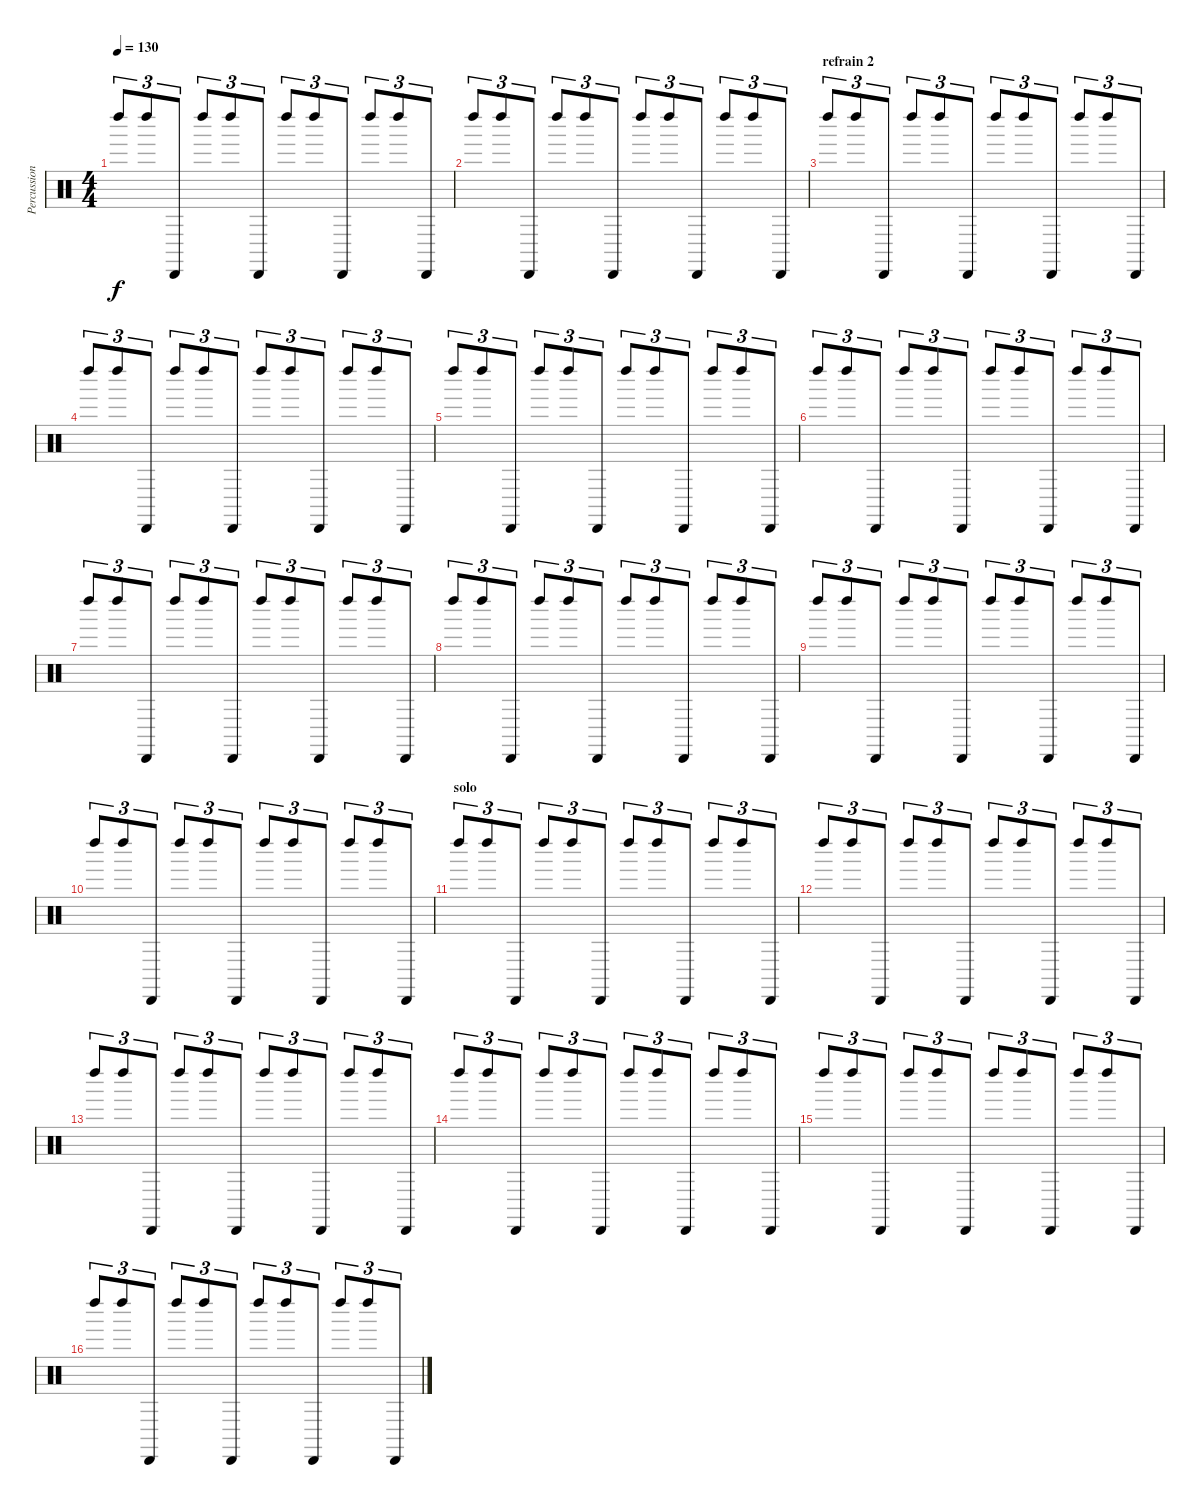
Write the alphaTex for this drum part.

\track ("Percussions Farrell Morris" "Percussion") {instrument percussion}
\staff {score}
\articulation defaults
\ts (4 4)
\tempo 130
\clef neutral
\ks c "Left Maraca (hit)".8{tu (3 2) dy f} "Left Maraca (hit)".8{tu (3 2)} "Cabasa (hit)".8{tu (3 2)} "Left Maraca (hit)".8{tu (3 2)} "Left Maraca (hit)".8{tu (3 2)} "Cabasa (hit)".8{tu (3 2)} "Left Maraca (hit)".8{tu (3 2)} "Left Maraca (hit)".8{tu (3 2)} "Cabasa (hit)".8{tu (3 2)} "Left Maraca (hit)".8{tu (3 2)} "Left Maraca (hit)".8{tu (3 2)} "Cabasa (hit)".8{tu (3 2)}
|
"Left Maraca (hit)".8{tu (3 2)} "Left Maraca (hit)".8{tu (3 2)} "Cabasa (hit)".8{tu (3 2)} "Left Maraca (hit)".8{tu (3 2)} "Left Maraca (hit)".8{tu (3 2)} "Cabasa (hit)".8{tu (3 2)} "Left Maraca (hit)".8{tu (3 2)} "Left Maraca (hit)".8{tu (3 2)} "Cabasa (hit)".8{tu (3 2)} "Left Maraca (hit)".8{tu (3 2)} "Left Maraca (hit)".8{tu (3 2)} "Cabasa (hit)".8{tu (3 2)} |
\section ("" "refrain 2")
"Left Maraca (hit)".8{tu (3 2)} "Left Maraca (hit)".8{tu (3 2)} "Cabasa (hit)".8{tu (3 2)} "Left Maraca (hit)".8{tu (3 2)} "Left Maraca (hit)".8{tu (3 2)} "Cabasa (hit)".8{tu (3 2)} "Left Maraca (hit)".8{tu (3 2)} "Left Maraca (hit)".8{tu (3 2)} "Cabasa (hit)".8{tu (3 2)} "Left Maraca (hit)".8{tu (3 2)} "Left Maraca (hit)".8{tu (3 2)} "Cabasa (hit)".8{tu (3 2)} |
"Left Maraca (hit)".8{tu (3 2)} "Left Maraca (hit)".8{tu (3 2)} "Cabasa (hit)".8{tu (3 2)} "Left Maraca (hit)".8{tu (3 2)} "Left Maraca (hit)".8{tu (3 2)} "Cabasa (hit)".8{tu (3 2)} "Left Maraca (hit)".8{tu (3 2)} "Left Maraca (hit)".8{tu (3 2)} "Cabasa (hit)".8{tu (3 2)} "Left Maraca (hit)".8{tu (3 2)} "Left Maraca (hit)".8{tu (3 2)} "Cabasa (hit)".8{tu (3 2)} |
"Left Maraca (hit)".8{tu (3 2)} "Left Maraca (hit)".8{tu (3 2)} "Cabasa (hit)".8{tu (3 2)} "Left Maraca (hit)".8{tu (3 2)} "Left Maraca (hit)".8{tu (3 2)} "Cabasa (hit)".8{tu (3 2)} "Left Maraca (hit)".8{tu (3 2)} "Left Maraca (hit)".8{tu (3 2)} "Cabasa (hit)".8{tu (3 2)} "Left Maraca (hit)".8{tu (3 2)} "Left Maraca (hit)".8{tu (3 2)} "Cabasa (hit)".8{tu (3 2)} |
"Left Maraca (hit)".8{tu (3 2)} "Left Maraca (hit)".8{tu (3 2)} "Cabasa (hit)".8{tu (3 2)} "Left Maraca (hit)".8{tu (3 2)} "Left Maraca (hit)".8{tu (3 2)} "Cabasa (hit)".8{tu (3 2)} "Left Maraca (hit)".8{tu (3 2)} "Left Maraca (hit)".8{tu (3 2)} "Cabasa (hit)".8{tu (3 2)} "Left Maraca (hit)".8{tu (3 2)} "Left Maraca (hit)".8{tu (3 2)} "Cabasa (hit)".8{tu (3 2)} |
"Left Maraca (hit)".8{tu (3 2)} "Left Maraca (hit)".8{tu (3 2)} "Cabasa (hit)".8{tu (3 2)} "Left Maraca (hit)".8{tu (3 2)} "Left Maraca (hit)".8{tu (3 2)} "Cabasa (hit)".8{tu (3 2)} "Left Maraca (hit)".8{tu (3 2)} "Left Maraca (hit)".8{tu (3 2)} "Cabasa (hit)".8{tu (3 2)} "Left Maraca (hit)".8{tu (3 2)} "Left Maraca (hit)".8{tu (3 2)} "Cabasa (hit)".8{tu (3 2)} |
"Left Maraca (hit)".8{tu (3 2)} "Left Maraca (hit)".8{tu (3 2)} "Cabasa (hit)".8{tu (3 2)} "Left Maraca (hit)".8{tu (3 2)} "Left Maraca (hit)".8{tu (3 2)} "Cabasa (hit)".8{tu (3 2)} "Left Maraca (hit)".8{tu (3 2)} "Left Maraca (hit)".8{tu (3 2)} "Cabasa (hit)".8{tu (3 2)} "Left Maraca (hit)".8{tu (3 2)} "Left Maraca (hit)".8{tu (3 2)} "Cabasa (hit)".8{tu (3 2)} |
"Left Maraca (hit)".8{tu (3 2)} "Left Maraca (hit)".8{tu (3 2)} "Cabasa (hit)".8{tu (3 2)} "Left Maraca (hit)".8{tu (3 2)} "Left Maraca (hit)".8{tu (3 2)} "Cabasa (hit)".8{tu (3 2)} "Left Maraca (hit)".8{tu (3 2)} "Left Maraca (hit)".8{tu (3 2)} "Cabasa (hit)".8{tu (3 2)} "Left Maraca (hit)".8{tu (3 2)} "Left Maraca (hit)".8{tu (3 2)} "Cabasa (hit)".8{tu (3 2)} |
"Left Maraca (hit)".8{tu (3 2)} "Left Maraca (hit)".8{tu (3 2)} "Cabasa (hit)".8{tu (3 2)} "Left Maraca (hit)".8{tu (3 2)} "Left Maraca (hit)".8{tu (3 2)} "Cabasa (hit)".8{tu (3 2)} "Left Maraca (hit)".8{tu (3 2)} "Left Maraca (hit)".8{tu (3 2)} "Cabasa (hit)".8{tu (3 2)} "Left Maraca (hit)".8{tu (3 2)} "Left Maraca (hit)".8{tu (3 2)} "Cabasa (hit)".8{tu (3 2)} |
\section ("" "solo")
"Left Maraca (hit)".8{tu (3 2)} "Left Maraca (hit)".8{tu (3 2)} "Cabasa (hit)".8{tu (3 2)} "Left Maraca (hit)".8{tu (3 2)} "Left Maraca (hit)".8{tu (3 2)} "Cabasa (hit)".8{tu (3 2)} "Left Maraca (hit)".8{tu (3 2)} "Left Maraca (hit)".8{tu (3 2)} "Cabasa (hit)".8{tu (3 2)} "Left Maraca (hit)".8{tu (3 2)} "Left Maraca (hit)".8{tu (3 2)} "Cabasa (hit)".8{tu (3 2)} |
"Left Maraca (hit)".8{tu (3 2)} "Left Maraca (hit)".8{tu (3 2)} "Cabasa (hit)".8{tu (3 2)} "Left Maraca (hit)".8{tu (3 2)} "Left Maraca (hit)".8{tu (3 2)} "Cabasa (hit)".8{tu (3 2)} "Left Maraca (hit)".8{tu (3 2)} "Left Maraca (hit)".8{tu (3 2)} "Cabasa (hit)".8{tu (3 2)} "Left Maraca (hit)".8{tu (3 2)} "Left Maraca (hit)".8{tu (3 2)} "Cabasa (hit)".8{tu (3 2)} |
"Left Maraca (hit)".8{tu (3 2)} "Left Maraca (hit)".8{tu (3 2)} "Cabasa (hit)".8{tu (3 2)} "Left Maraca (hit)".8{tu (3 2)} "Left Maraca (hit)".8{tu (3 2)} "Cabasa (hit)".8{tu (3 2)} "Left Maraca (hit)".8{tu (3 2)} "Left Maraca (hit)".8{tu (3 2)} "Cabasa (hit)".8{tu (3 2)} "Left Maraca (hit)".8{tu (3 2)} "Left Maraca (hit)".8{tu (3 2)} "Cabasa (hit)".8{tu (3 2)} |
"Left Maraca (hit)".8{tu (3 2)} "Left Maraca (hit)".8{tu (3 2)} "Cabasa (hit)".8{tu (3 2)} "Left Maraca (hit)".8{tu (3 2)} "Left Maraca (hit)".8{tu (3 2)} "Cabasa (hit)".8{tu (3 2)} "Left Maraca (hit)".8{tu (3 2)} "Left Maraca (hit)".8{tu (3 2)} "Cabasa (hit)".8{tu (3 2)} "Left Maraca (hit)".8{tu (3 2)} "Left Maraca (hit)".8{tu (3 2)} "Cabasa (hit)".8{tu (3 2)} |
"Left Maraca (hit)".8{tu (3 2)} "Left Maraca (hit)".8{tu (3 2)} "Cabasa (hit)".8{tu (3 2)} "Left Maraca (hit)".8{tu (3 2)} "Left Maraca (hit)".8{tu (3 2)} "Cabasa (hit)".8{tu (3 2)} "Left Maraca (hit)".8{tu (3 2)} "Left Maraca (hit)".8{tu (3 2)} "Cabasa (hit)".8{tu (3 2)} "Left Maraca (hit)".8{tu (3 2)} "Left Maraca (hit)".8{tu (3 2)} "Cabasa (hit)".8{tu (3 2)} |
"Left Maraca (hit)".8{tu (3 2)} "Left Maraca (hit)".8{tu (3 2)} "Cabasa (hit)".8{tu (3 2)} "Left Maraca (hit)".8{tu (3 2)} "Left Maraca (hit)".8{tu (3 2)} "Cabasa (hit)".8{tu (3 2)} "Left Maraca (hit)".8{tu (3 2)} "Left Maraca (hit)".8{tu (3 2)} "Cabasa (hit)".8{tu (3 2)} "Left Maraca (hit)".8{tu (3 2)} "Left Maraca (hit)".8{tu (3 2)} "Cabasa (hit)".8{tu (3 2)}
